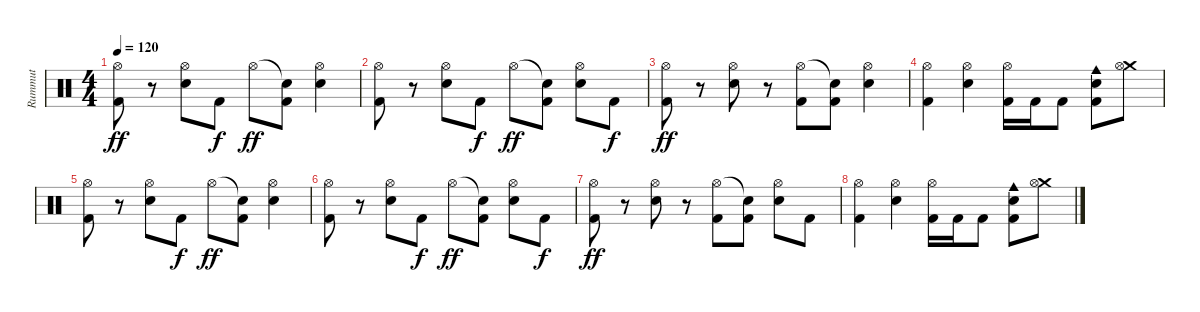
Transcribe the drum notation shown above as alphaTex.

\track ("Rummut" "Rummut") {instrument percussion}
\staff {score}
\articulation defaults
\ts (4 4)
\tempo 120
\clef neutral
\ks c
("Hi-Hat (open)" "Kick (hit) 2").8{dy ff} r.8 ("Hi-Hat (open)" "Snare (hit) 2").8 "Kick (hit) 2".8{dy f} "Hi-Hat (open)".8{dy ff} ("Snare (hit)"{t} "Kick (hit) 2").8 ("Hi-Hat (open)" "Snare (hit) 2").4 |
("Hi-Hat (open)" "Kick (hit) 2").8 r.8 ("Hi-Hat (open)" "Snare (hit) 2").8 "Kick (hit) 2".8{dy f} "Hi-Hat (open)".8{dy ff} ("Snare (hit)"{t} "Kick (hit) 2").8 ("Hi-Hat (open)" "Snare (hit) 2").8 "Kick (hit) 2".8{dy f} |
("Hi-Hat (open)" "Kick (hit) 2").8{dy ff} r.8 ("Hi-Hat (open)" "Snare (hit) 2").8 r.8 ("Hi-Hat (open)" "Kick (hit) 2").8 ("Snare (hit)"{t} "Kick (hit) 2").8 ("Hi-Hat (open)" "Snare (hit) 2").4 |
("Hi-Hat (open)" "Kick (hit) 2").4 ("Hi-Hat (open)" "Snare (hit) 2").4 ("Hi-Hat (open)" "Kick (hit) 2").16 "Kick (hit) 2".16 "Kick (hit) 2".8 ("Cowbell medium (hit)" "Snare (hit) 2" "Kick (hit) 2").8 ("Crash medium (hit)" "Hi-Hat (open)").8 |
("Hi-Hat (open)" "Kick (hit) 2").8 r.8 ("Hi-Hat (open)" "Snare (hit) 2").8 "Kick (hit) 2".8{dy f} "Hi-Hat (open)".8{dy ff} ("Snare (hit)"{t} "Kick (hit) 2").8 ("Hi-Hat (open)" "Snare (hit) 2").4 |
("Hi-Hat (open)" "Kick (hit) 2").8 r.8 ("Hi-Hat (open)" "Snare (hit) 2").8 "Kick (hit) 2".8{dy f} "Hi-Hat (open)".8{dy ff} ("Snare (hit)"{t} "Kick (hit) 2").8 ("Hi-Hat (open)" "Snare (hit) 2").8 "Kick (hit) 2".8{dy f} |
("Hi-Hat (open)" "Kick (hit) 2").8{dy ff} r.8 ("Hi-Hat (open)" "Snare (hit) 2").8 r.8 ("Hi-Hat (open)" "Kick (hit) 2").8 ("Snare (hit)"{t} "Kick (hit) 2").8 ("Hi-Hat (open)" "Snare (hit) 2").8 "Kick (hit) 2".8 |
("Hi-Hat (open)" "Kick (hit) 2").4 ("Hi-Hat (open)" "Snare (hit) 2").4 ("Hi-Hat (open)" "Kick (hit) 2").16 "Kick (hit) 2".16 "Kick (hit) 2".8 ("Cowbell medium (hit)" "Snare (hit) 2" "Kick (hit) 2").8 ("Crash medium (hit)" "Hi-Hat (open)").8
